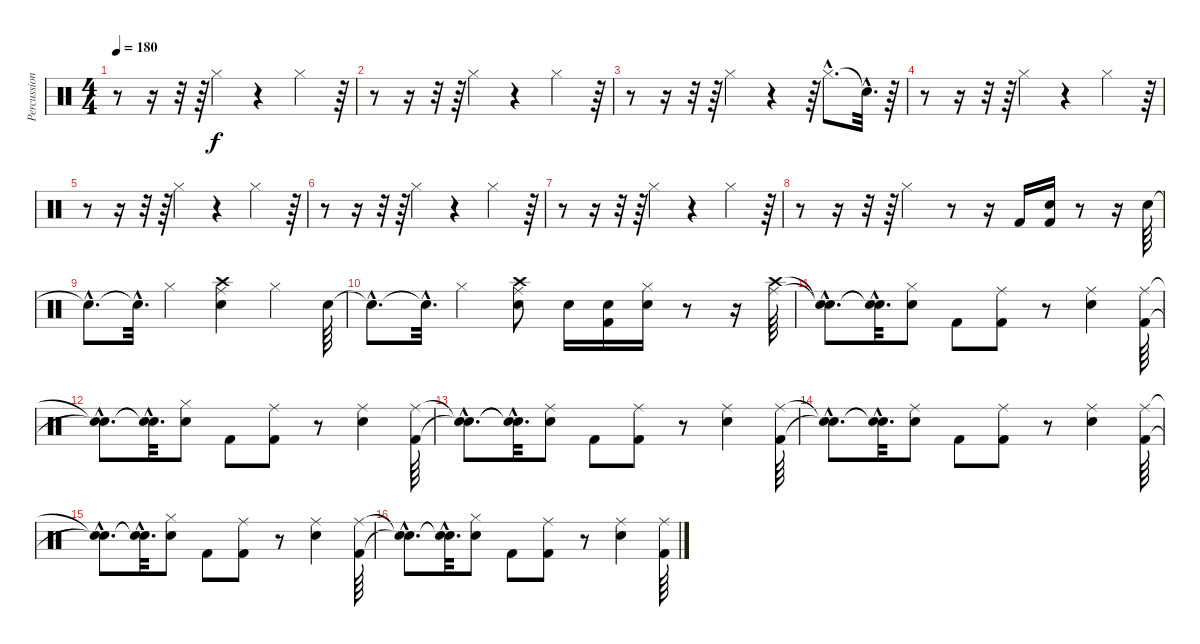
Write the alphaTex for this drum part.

\track ("Percussion" "Percussion") {instrument percussion}
\staff {score}
\articulation defaults
\ts (4 4)
\tempo 180
\clef neutral
\ks c
r.8{dy f} r.16 r.32 r.64 "Hi-Hat (closed)".4 r.4 "Hi-Hat (closed)".4 r.64 |
r.8 r.16 r.32 r.64 "Hi-Hat (closed)".4 r.4 "Hi-Hat (closed)".4 r.64 |
r.8 r.16 r.32 r.64 "Hi-Hat (closed)".4 r.4 r.64 "Hi-Hat (closed)"{hac}.8{d} "Snare (hit)"{hac t}.32{d} r.64 |
r.8 r.16 r.32 r.64 "Hi-Hat (closed)".4 r.4 "Hi-Hat (closed)".4 r.64 |
r.8 r.16 r.32 r.64 "Hi-Hat (closed)".4 r.4 "Hi-Hat (closed)".4 r.64 |
r.8 r.16 r.32 r.64 "Hi-Hat (closed)".4 r.4 "Hi-Hat (closed)".4 r.64 |
r.8 r.16 r.32 r.64 "Hi-Hat (closed)".4 r.4 "Hi-Hat (closed)".4 r.64 |
r.8 r.16 r.32 r.64 "Hi-Hat (closed)".4 r.8 r.16 "Kick (hit) 2".16 ("Snare (hit) 2" "Kick (hit) 2").16 r.8 r.16 "Snare (hit) 2".64 |
"Snare (hit)"{hac t}.8{d} "Snare (hit)"{hac t}.32{d} "Hi-Hat (closed)".4 ("Ride (middle)" "Snare (hit) 2" "Crash high (hit)").4 "Hi-Hat (closed)".4 "Snare (hit) 2".64 |
"Snare (hit)"{hac t}.8{d} "Snare (hit)"{hac t}.32{d} "Hi-Hat (closed)".4 ("Snare (hit) 2" "Ride (middle)" "Crash high (hit)").8 "Snare (hit) 2".16 ("Snare (hit) 2" "Kick (hit) 2").16 ("Hi-Hat (closed)" "Snare (hit) 2").16 r.8 r.16 ("Ride (middle)" "Crash high (hit)").64 |
("Snare (hit)"{hac t} "Snare (hit)"{hac t}).8{d} ("Snare (hit)"{hac t} "Snare (hit)"{hac t}).32{d} ("Hi-Hat (closed)" "Snare (hit) 2").8 "Kick (hit) 2".8 ("Ride (middle)" "Kick (hit) 2").8 r.8 ("Ride (middle)" "Snare (hit) 2").4 ("Ride (middle)" "Kick (hit) 2").64 |
("Snare (hit)"{hac t} "Snare (hit)"{hac t}).8{d} ("Snare (hit)"{hac t} "Snare (hit)"{hac t}).32{d} ("Hi-Hat (closed)" "Snare (hit) 2").8 "Kick (hit) 2".8 ("Ride (middle)" "Kick (hit) 2").8 r.8 ("Ride (middle)" "Snare (hit) 2").4 ("Ride (middle)" "Kick (hit) 2").64 |
("Snare (hit)"{hac t} "Snare (hit)"{hac t}).8{d} ("Snare (hit)"{hac t} "Snare (hit)"{hac t}).32{d} ("Snare (hit) 2" "Ride (middle)").8 "Kick (hit) 2".8 ("Kick (hit) 2" "Ride (middle)").8 r.8 ("Ride (middle)" "Snare (hit) 2").4 ("Kick (hit) 2" "Ride (middle)").64 |
("Snare (hit)"{hac t} "Snare (hit)"{hac t}).8{d} ("Snare (hit)"{hac t} "Snare (hit)"{hac t}).32{d} ("Snare (hit) 2" "Ride (middle)").8 "Kick (hit) 2".8 ("Kick (hit) 2" "Ride (middle)").8 r.8 ("Ride (middle)" "Snare (hit) 2").4 ("Kick (hit) 2" "Ride (middle)").64 |
("Snare (hit)"{hac t} "Snare (hit)"{hac t}).8{d} ("Snare (hit)"{hac t} "Snare (hit)"{hac t}).32{d} ("Hi-Hat (closed)" "Snare (hit) 2").8 "Kick (hit) 2".8 ("Ride (middle)" "Kick (hit) 2").8 r.8 ("Ride (middle)" "Snare (hit) 2").4 ("Ride (middle)" "Kick (hit) 2").64 |
("Snare (hit)"{hac t} "Snare (hit)"{hac t}).8{d} ("Snare (hit)"{hac t} "Snare (hit)"{hac t}).32{d} ("Hi-Hat (closed)" "Snare (hit) 2").8 "Kick (hit) 2".8 ("Ride (middle)" "Kick (hit) 2").8 r.8 ("Ride (middle)" "Snare (hit) 2").4 ("Ride (middle)" "Kick (hit) 2").64
